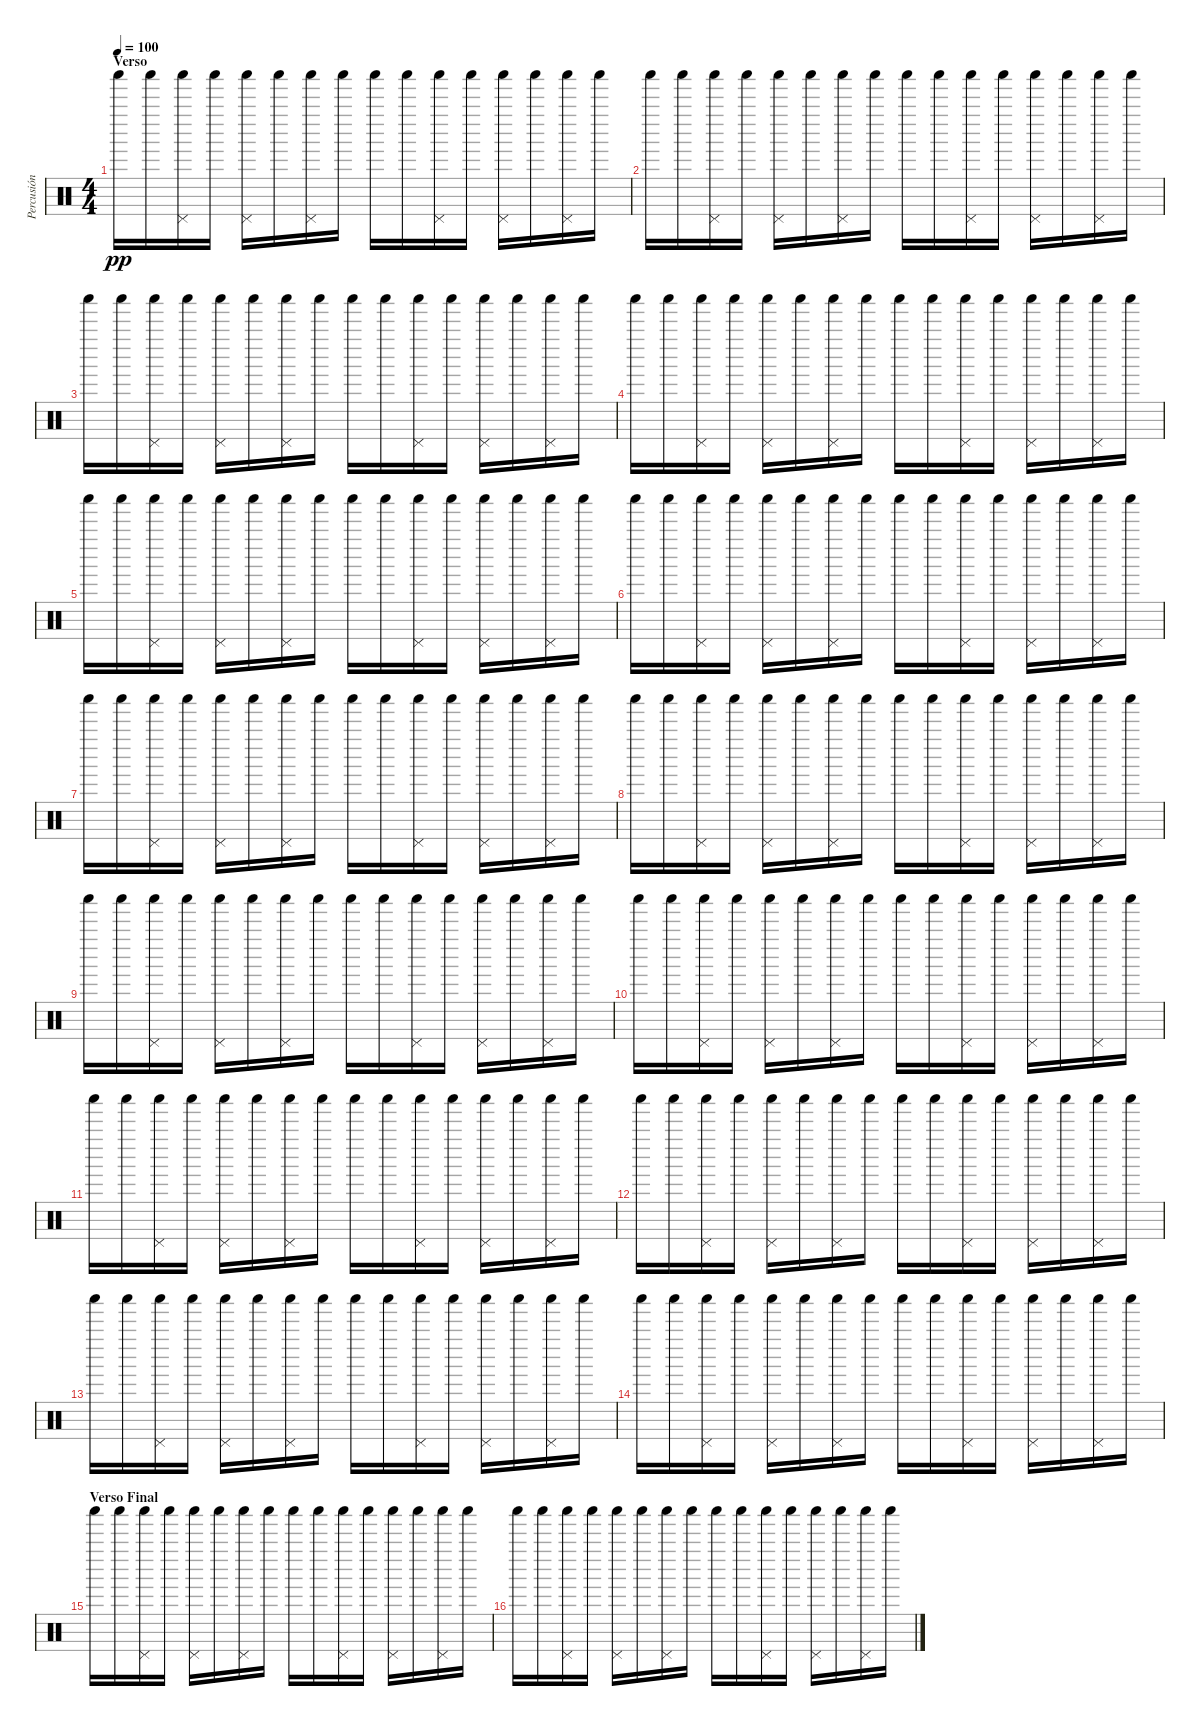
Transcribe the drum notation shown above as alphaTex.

\track ("Percusión" "Percusión") {instrument percussion}
\staff {score}
\articulation defaults
\ts (4 4)
\section ("" "Verso")
\tempo 100
\clef neutral
\ks c "Shaker (hit)".16{dy pp} "Shaker (hit)".16
("Shaker (hit)" "Pedal Hi-Hat (hit)").16 "Shaker (hit)".16 ("Shaker (hit)" "Pedal Hi-Hat (hit)").16 "Shaker (hit)".16 ("Shaker (hit)" "Pedal Hi-Hat (hit)").16 "Shaker (hit)".16 "Shaker (hit)".16 "Shaker (hit)".16 ("Shaker (hit)" "Pedal Hi-Hat (hit)").16 "Shaker (hit)".16 ("Shaker (hit)" "Pedal Hi-Hat (hit)").16 "Shaker (hit)".16 ("Shaker (hit)" "Pedal Hi-Hat (hit)").16 "Shaker (hit)".16 |
"Shaker (hit)".16 "Shaker (hit)".16 ("Shaker (hit)" "Pedal Hi-Hat (hit)").16 "Shaker (hit)".16 ("Shaker (hit)" "Pedal Hi-Hat (hit)").16 "Shaker (hit)".16 ("Shaker (hit)" "Pedal Hi-Hat (hit)").16 "Shaker (hit)".16 "Shaker (hit)".16 "Shaker (hit)".16 ("Shaker (hit)" "Pedal Hi-Hat (hit)").16 "Shaker (hit)".16 ("Shaker (hit)" "Pedal Hi-Hat (hit)").16 "Shaker (hit)".16 ("Shaker (hit)" "Pedal Hi-Hat (hit)").16 "Shaker (hit)".16 |
"Shaker (hit)".16 "Shaker (hit)".16 ("Shaker (hit)" "Pedal Hi-Hat (hit)").16 "Shaker (hit)".16 ("Shaker (hit)" "Pedal Hi-Hat (hit)").16 "Shaker (hit)".16 ("Shaker (hit)" "Pedal Hi-Hat (hit)").16 "Shaker (hit)".16 "Shaker (hit)".16 "Shaker (hit)".16 ("Shaker (hit)" "Pedal Hi-Hat (hit)").16 "Shaker (hit)".16 ("Shaker (hit)" "Pedal Hi-Hat (hit)").16 "Shaker (hit)".16 ("Shaker (hit)" "Pedal Hi-Hat (hit)").16 "Shaker (hit)".16 |
"Shaker (hit)".16 "Shaker (hit)".16 ("Shaker (hit)" "Pedal Hi-Hat (hit)").16 "Shaker (hit)".16 ("Shaker (hit)" "Pedal Hi-Hat (hit)").16 "Shaker (hit)".16 ("Shaker (hit)" "Pedal Hi-Hat (hit)").16 "Shaker (hit)".16 "Shaker (hit)".16 "Shaker (hit)".16 ("Shaker (hit)" "Pedal Hi-Hat (hit)").16 "Shaker (hit)".16 ("Shaker (hit)" "Pedal Hi-Hat (hit)").16 "Shaker (hit)".16 ("Shaker (hit)" "Pedal Hi-Hat (hit)").16 "Shaker (hit)".16 |
"Shaker (hit)".16 "Shaker (hit)".16 ("Shaker (hit)" "Pedal Hi-Hat (hit)").16 "Shaker (hit)".16 ("Shaker (hit)" "Pedal Hi-Hat (hit)").16 "Shaker (hit)".16 ("Shaker (hit)" "Pedal Hi-Hat (hit)").16 "Shaker (hit)".16 "Shaker (hit)".16 "Shaker (hit)".16 ("Shaker (hit)" "Pedal Hi-Hat (hit)").16 "Shaker (hit)".16 ("Shaker (hit)" "Pedal Hi-Hat (hit)").16 "Shaker (hit)".16 ("Shaker (hit)" "Pedal Hi-Hat (hit)").16 "Shaker (hit)".16 |
"Shaker (hit)".16 "Shaker (hit)".16 ("Shaker (hit)" "Pedal Hi-Hat (hit)").16 "Shaker (hit)".16 ("Shaker (hit)" "Pedal Hi-Hat (hit)").16 "Shaker (hit)".16 ("Shaker (hit)" "Pedal Hi-Hat (hit)").16 "Shaker (hit)".16 "Shaker (hit)".16 "Shaker (hit)".16 ("Shaker (hit)" "Pedal Hi-Hat (hit)").16 "Shaker (hit)".16 ("Shaker (hit)" "Pedal Hi-Hat (hit)").16 "Shaker (hit)".16 ("Shaker (hit)" "Pedal Hi-Hat (hit)").16 "Shaker (hit)".16 |
"Shaker (hit)".16 "Shaker (hit)".16 ("Shaker (hit)" "Pedal Hi-Hat (hit)").16 "Shaker (hit)".16 ("Shaker (hit)" "Pedal Hi-Hat (hit)").16 "Shaker (hit)".16 ("Shaker (hit)" "Pedal Hi-Hat (hit)").16 "Shaker (hit)".16 "Shaker (hit)".16 "Shaker (hit)".16 ("Shaker (hit)" "Pedal Hi-Hat (hit)").16 "Shaker (hit)".16 ("Shaker (hit)" "Pedal Hi-Hat (hit)").16 "Shaker (hit)".16 ("Shaker (hit)" "Pedal Hi-Hat (hit)").16 "Shaker (hit)".16 |
"Shaker (hit)".16 "Shaker (hit)".16 ("Shaker (hit)" "Pedal Hi-Hat (hit)").16 "Shaker (hit)".16 ("Shaker (hit)" "Pedal Hi-Hat (hit)").16 "Shaker (hit)".16 ("Shaker (hit)" "Pedal Hi-Hat (hit)").16 "Shaker (hit)".16 "Shaker (hit)".16 "Shaker (hit)".16 ("Shaker (hit)" "Pedal Hi-Hat (hit)").16 "Shaker (hit)".16 ("Shaker (hit)" "Pedal Hi-Hat (hit)").16 "Shaker (hit)".16 ("Shaker (hit)" "Pedal Hi-Hat (hit)").16 "Shaker (hit)".16 |
"Shaker (hit)".16 "Shaker (hit)".16 ("Shaker (hit)" "Pedal Hi-Hat (hit)").16 "Shaker (hit)".16 ("Shaker (hit)" "Pedal Hi-Hat (hit)").16 "Shaker (hit)".16 ("Shaker (hit)" "Pedal Hi-Hat (hit)").16 "Shaker (hit)".16 "Shaker (hit)".16 "Shaker (hit)".16 ("Shaker (hit)" "Pedal Hi-Hat (hit)").16 "Shaker (hit)".16 ("Shaker (hit)" "Pedal Hi-Hat (hit)").16 "Shaker (hit)".16 ("Shaker (hit)" "Pedal Hi-Hat (hit)").16 "Shaker (hit)".16 |
"Shaker (hit)".16 "Shaker (hit)".16 ("Shaker (hit)" "Pedal Hi-Hat (hit)").16 "Shaker (hit)".16 ("Shaker (hit)" "Pedal Hi-Hat (hit)").16 "Shaker (hit)".16 ("Shaker (hit)" "Pedal Hi-Hat (hit)").16 "Shaker (hit)".16 "Shaker (hit)".16 "Shaker (hit)".16 ("Shaker (hit)" "Pedal Hi-Hat (hit)").16 "Shaker (hit)".16 ("Shaker (hit)" "Pedal Hi-Hat (hit)").16 "Shaker (hit)".16 ("Shaker (hit)" "Pedal Hi-Hat (hit)").16 "Shaker (hit)".16 |
"Shaker (hit)".16 "Shaker (hit)".16 ("Shaker (hit)" "Pedal Hi-Hat (hit)").16 "Shaker (hit)".16 ("Shaker (hit)" "Pedal Hi-Hat (hit)").16 "Shaker (hit)".16 ("Shaker (hit)" "Pedal Hi-Hat (hit)").16 "Shaker (hit)".16 "Shaker (hit)".16 "Shaker (hit)".16 ("Shaker (hit)" "Pedal Hi-Hat (hit)").16 "Shaker (hit)".16 ("Shaker (hit)" "Pedal Hi-Hat (hit)").16 "Shaker (hit)".16 ("Shaker (hit)" "Pedal Hi-Hat (hit)").16 "Shaker (hit)".16 |
"Shaker (hit)".16 "Shaker (hit)".16 ("Shaker (hit)" "Pedal Hi-Hat (hit)").16 "Shaker (hit)".16 ("Shaker (hit)" "Pedal Hi-Hat (hit)").16 "Shaker (hit)".16 ("Shaker (hit)" "Pedal Hi-Hat (hit)").16 "Shaker (hit)".16 "Shaker (hit)".16 "Shaker (hit)".16 ("Shaker (hit)" "Pedal Hi-Hat (hit)").16 "Shaker (hit)".16 ("Shaker (hit)" "Pedal Hi-Hat (hit)").16 "Shaker (hit)".16 ("Shaker (hit)" "Pedal Hi-Hat (hit)").16 "Shaker (hit)".16 |
"Shaker (hit)".16 "Shaker (hit)".16 ("Shaker (hit)" "Pedal Hi-Hat (hit)").16 "Shaker (hit)".16 ("Shaker (hit)" "Pedal Hi-Hat (hit)").16 "Shaker (hit)".16 ("Shaker (hit)" "Pedal Hi-Hat (hit)").16 "Shaker (hit)".16 "Shaker (hit)".16 "Shaker (hit)".16 ("Shaker (hit)" "Pedal Hi-Hat (hit)").16 "Shaker (hit)".16 ("Shaker (hit)" "Pedal Hi-Hat (hit)").16 "Shaker (hit)".16 ("Shaker (hit)" "Pedal Hi-Hat (hit)").16 "Shaker (hit)".16 |
"Shaker (hit)".16 "Shaker (hit)".16 ("Shaker (hit)" "Pedal Hi-Hat (hit)").16 "Shaker (hit)".16 ("Shaker (hit)" "Pedal Hi-Hat (hit)").16 "Shaker (hit)".16 ("Shaker (hit)" "Pedal Hi-Hat (hit)").16 "Shaker (hit)".16 "Shaker (hit)".16 "Shaker (hit)".16 ("Shaker (hit)" "Pedal Hi-Hat (hit)").16 "Shaker (hit)".16 ("Shaker (hit)" "Pedal Hi-Hat (hit)").16 "Shaker (hit)".16 ("Shaker (hit)" "Pedal Hi-Hat (hit)").16 "Shaker (hit)".16 |
\section ("" "Verso Final")
"Shaker (hit)".16 "Shaker (hit)".16 ("Shaker (hit)" "Pedal Hi-Hat (hit)").16 "Shaker (hit)".16 ("Shaker (hit)" "Pedal Hi-Hat (hit)").16 "Shaker (hit)".16 ("Shaker (hit)" "Pedal Hi-Hat (hit)").16 "Shaker (hit)".16 "Shaker (hit)".16 "Shaker (hit)".16 ("Shaker (hit)" "Pedal Hi-Hat (hit)").16 "Shaker (hit)".16 ("Shaker (hit)" "Pedal Hi-Hat (hit)").16 "Shaker (hit)".16 ("Shaker (hit)" "Pedal Hi-Hat (hit)").16 "Shaker (hit)".16 |
"Shaker (hit)".16 "Shaker (hit)".16 ("Shaker (hit)" "Pedal Hi-Hat (hit)").16 "Shaker (hit)".16 ("Shaker (hit)" "Pedal Hi-Hat (hit)").16 "Shaker (hit)".16 ("Shaker (hit)" "Pedal Hi-Hat (hit)").16 "Shaker (hit)".16 "Shaker (hit)".16 "Shaker (hit)".16 ("Shaker (hit)" "Pedal Hi-Hat (hit)").16 "Shaker (hit)".16 ("Shaker (hit)" "Pedal Hi-Hat (hit)").16 "Shaker (hit)".16 ("Shaker (hit)" "Pedal Hi-Hat (hit)").16 "Shaker (hit)".16
